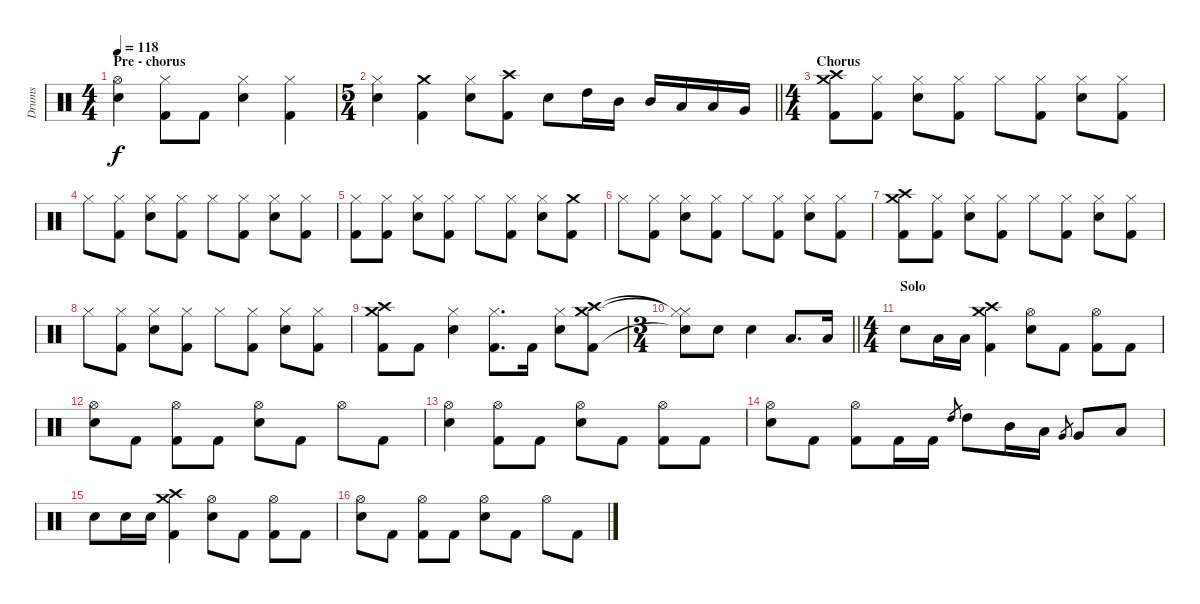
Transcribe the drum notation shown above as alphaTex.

\track ("Drums" "Drums") {instrument percussion}
\staff {score}
\articulation defaults
\ts (4 4)
\section ("" "Pre - chorus")
\tempo 118
\clef neutral
\ks c
("Hi-Hat (open)" "Snare (hit) 2").4{dy f} ("Hi-Hat (closed)" "Kick (hit) 2").8 "Kick (hit) 2".8 ("Hi-Hat (closed)" "Snare (hit) 2").4 ("Hi-Hat (closed)" "Kick (hit) 2").4 |
\ts (5 4)
\barLineRight lightlight
("Hi-Hat (closed)" "Snare (hit) 2").4 ("Crash medium (hit)" "Kick (hit) 2").4 ("Hi-Hat (closed)" "Snare (hit) 2").8 ("Crash high (hit)" "Kick (hit) 2").8 "Snare (hit) 2".8 "High Tom (hit)".16 "Mid Tom (hit)".16 "Mid Tom (hit)".16 "Low Tom (hit)".16 "Low Tom (hit)".16 "Very Low Tom (hit)".16 |
\ts (4 4)
\section ("" "Chorus")
("Crash medium (hit)" "Crash high (hit)" "Kick (hit) 2").8 ("Hi-Hat (closed)" "Kick (hit) 2").8 ("Hi-Hat (closed)" "Snare (hit) 2").8 ("Hi-Hat (closed)" "Kick (hit) 2").8 "Hi-Hat (closed)".8 ("Hi-Hat (closed)" "Kick (hit) 2").8 ("Hi-Hat (closed)" "Snare (hit) 2").8 ("Hi-Hat (closed)" "Kick (hit) 2").8 |
"Hi-Hat (closed)".8 ("Hi-Hat (closed)" "Kick (hit) 2").8 ("Hi-Hat (closed)" "Snare (hit) 2").8 ("Hi-Hat (closed)" "Kick (hit) 2").8 "Hi-Hat (closed)".8 ("Hi-Hat (closed)" "Kick (hit) 2").8 ("Hi-Hat (closed)" "Snare (hit) 2").8 ("Hi-Hat (closed)" "Kick (hit) 2").8 |
("Hi-Hat (closed)" "Kick (hit) 2").8 ("Hi-Hat (closed)" "Kick (hit) 2").8 ("Hi-Hat (closed)" "Snare (hit) 2").8 ("Hi-Hat (closed)" "Kick (hit) 2").8 "Hi-Hat (closed)".8 ("Hi-Hat (closed)" "Kick (hit) 2").8 ("Hi-Hat (closed)" "Snare (hit) 2").8 ("Crash medium (hit)" "Kick (hit) 2").8 |
"Hi-Hat (closed)".8 ("Hi-Hat (closed)" "Kick (hit) 2").8 ("Hi-Hat (closed)" "Snare (hit) 2").8 ("Hi-Hat (closed)" "Kick (hit) 2").8 "Hi-Hat (closed)".8 ("Hi-Hat (closed)" "Kick (hit) 2").8 ("Hi-Hat (closed)" "Snare (hit) 2").8 ("Hi-Hat (closed)" "Kick (hit) 2").8 |
("Crash medium (hit)" "Crash high (hit)" "Kick (hit) 2").8 ("Hi-Hat (closed)" "Kick (hit) 2").8 ("Hi-Hat (closed)" "Snare (hit) 2").8 ("Hi-Hat (closed)" "Kick (hit) 2").8 "Hi-Hat (closed)".8 ("Hi-Hat (closed)" "Kick (hit) 2").8 ("Hi-Hat (closed)" "Snare (hit) 2").8 ("Hi-Hat (closed)" "Kick (hit) 2").8 |
"Hi-Hat (closed)".8 ("Hi-Hat (closed)" "Kick (hit) 2").8 ("Hi-Hat (closed)" "Snare (hit) 2").8 ("Hi-Hat (closed)" "Kick (hit) 2").8 "Hi-Hat (closed)".8 ("Hi-Hat (closed)" "Kick (hit) 2").8 ("Hi-Hat (closed)" "Snare (hit) 2").8 ("Hi-Hat (closed)" "Kick (hit) 2").8 |
("Crash medium (hit)" "Crash high (hit)" "Kick (hit) 2").8 "Kick (hit) 2".8 ("Hi-Hat (closed)" "Snare (hit) 2").4 ("Hi-Hat (closed)" "Kick (hit) 2").8{d} "Kick (hit) 2".16 ("Hi-Hat (closed)" "Snare (hit) 2").8 ("Crash medium (hit)" "Crash high (hit)" "Kick (hit) 2").8 |
\ts (3 4)
\barLineRight lightlight
("Hi-Hat (closed)"{t} "Hi-Hat (closed)"{t} "Snare (hit)"{t}).8 "Snare (hit) 2".8 "Snare (hit) 2".4 "Low Floor Tom (hit)".8{d} "Low Floor Tom (hit)".16 |
\ts (4 4)
\section ("" "Solo")
"Snare (hit) 2".8 "Low Floor Tom (hit)".16 "Low Floor Tom (hit)".16 ("Crash medium (hit)" "Crash high (hit)" "Kick (hit) 2").4 ("Hi-Hat (open)" "Snare (hit) 2").8 "Kick (hit) 2".8 ("Hi-Hat (open)" "Kick (hit) 2").8 "Kick (hit) 2".8 |
("Hi-Hat (open)" "Snare (hit) 2").8 "Kick (hit) 2".8 ("Hi-Hat (open)" "Kick (hit) 2").8 "Kick (hit) 2".8 ("Hi-Hat (open)" "Snare (hit) 2").8 "Kick (hit) 2".8 "Hi-Hat (open)".8 "Kick (hit) 2".8 |
("Hi-Hat (open)" "Snare (hit) 2").4 ("Hi-Hat (open)" "Kick (hit) 2").8 "Kick (hit) 2".8 ("Hi-Hat (open)" "Snare (hit) 2").8 "Kick (hit) 2".8 ("Hi-Hat (open)" "Kick (hit) 2").8 "Kick (hit) 2".8 |
("Hi-Hat (open)" "Snare (hit) 2").8 "Kick (hit) 2".8 ("Hi-Hat (open)" "Kick (hit) 2").8 "Kick (hit) 2".16 "Kick (hit) 2".16 "High Tom (hit)".8{gr} "High Tom (hit)".8 "Mid Tom (hit)".16 "Low Tom (hit)".16 "Very Low Tom (hit)".8{gr} "Very Low Tom (hit)".8 "Low Floor Tom (hit)".8 |
"Snare (hit) 2".8 "Snare (hit) 2".16 "Snare (hit) 2".16 ("Crash medium (hit)" "Crash high (hit)" "Kick (hit) 2").4 ("Hi-Hat (open)" "Snare (hit) 2").8 "Kick (hit) 2".8 ("Hi-Hat (open)" "Kick (hit) 2").8 "Kick (hit) 2".8 |
("Hi-Hat (open)" "Snare (hit) 2").8 "Kick (hit) 2".8 ("Hi-Hat (open)" "Kick (hit) 2").8 "Kick (hit) 2".8 ("Hi-Hat (open)" "Snare (hit) 2").8 "Kick (hit) 2".8 "Hi-Hat (open)".8 "Kick (hit) 2".8
